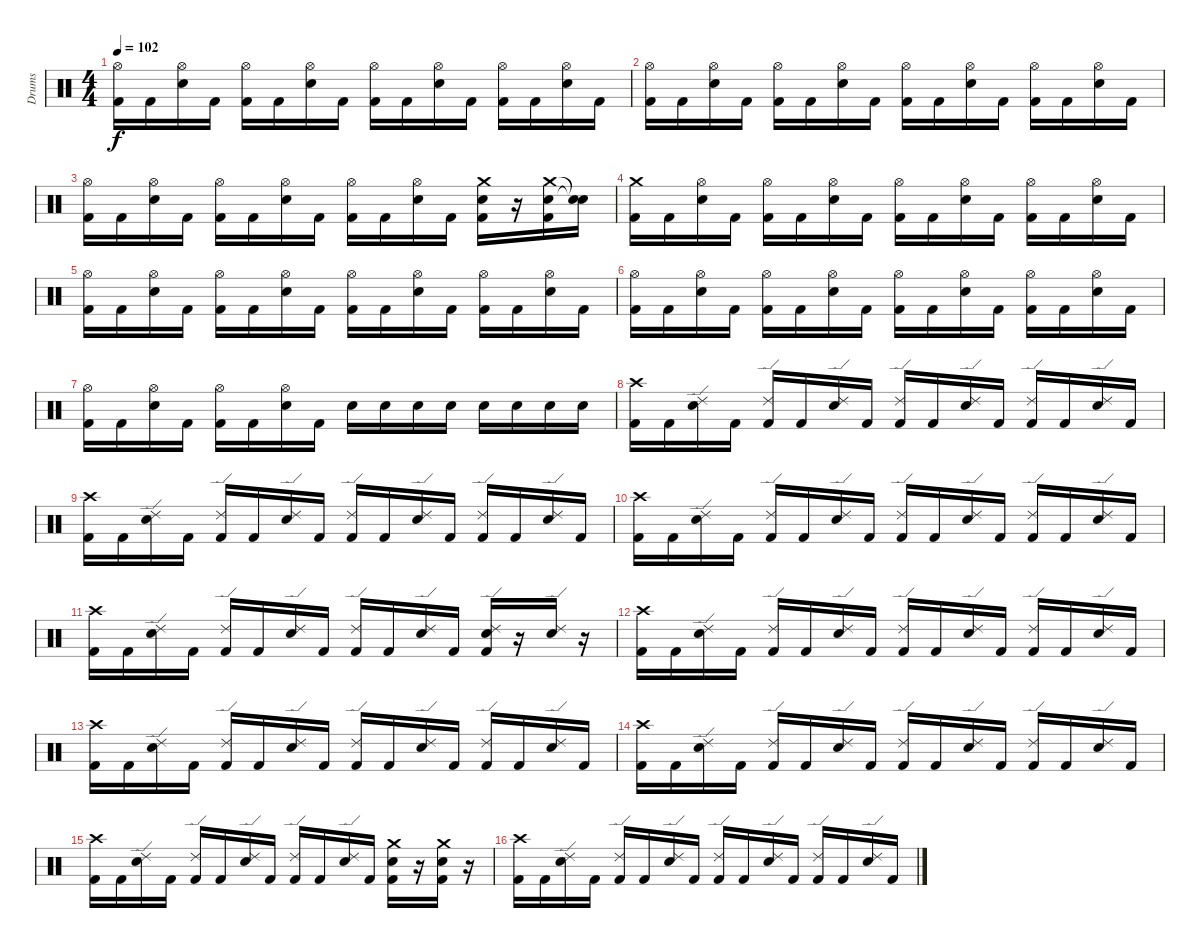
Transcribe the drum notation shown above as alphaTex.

\track ("Drums" "Drums") {instrument percussion}
\staff {score}
\articulation defaults
\ts (4 4)
\tempo 102
\clef neutral
\ks c
("Hi-Hat (open)" "Kick (hit) 2").16{dy f} "Kick (hit) 2".16 ("Hi-Hat (open)" "Snare (hit) 2").16 "Kick (hit) 2".16 ("Hi-Hat (open)" "Kick (hit) 2").16 "Kick (hit) 2".16 ("Hi-Hat (open)" "Snare (hit) 2").16 "Kick (hit) 2".16 ("Hi-Hat (open)" "Kick (hit) 2").16 "Kick (hit) 2".16 ("Hi-Hat (open)" "Snare (hit) 2").16 "Kick (hit) 2".16 ("Hi-Hat (open)" "Kick (hit) 2").16 "Kick (hit) 2".16 ("Hi-Hat (open)" "Snare (hit) 2").16 "Kick (hit) 2".16 |
("Hi-Hat (open)" "Kick (hit) 2").16 "Kick (hit) 2".16 ("Hi-Hat (open)" "Snare (hit) 2").16 "Kick (hit) 2".16 ("Hi-Hat (open)" "Kick (hit) 2").16 "Kick (hit) 2".16 ("Hi-Hat (open)" "Snare (hit) 2").16 "Kick (hit) 2".16 ("Hi-Hat (open)" "Kick (hit) 2").16 "Kick (hit) 2".16 ("Hi-Hat (open)" "Snare (hit) 2").16 "Kick (hit) 2".16 ("Hi-Hat (open)" "Kick (hit) 2").16 "Kick (hit) 2".16 ("Hi-Hat (open)" "Snare (hit) 2").16 "Kick (hit) 2".16 |
("Hi-Hat (open)" "Kick (hit) 2").16 "Kick (hit) 2".16 ("Hi-Hat (open)" "Snare (hit) 2").16 "Kick (hit) 2".16 ("Hi-Hat (open)" "Kick (hit) 2").16 "Kick (hit) 2".16 ("Hi-Hat (open)" "Snare (hit) 2").16 "Kick (hit) 2".16 ("Hi-Hat (open)" "Kick (hit) 2").16 "Kick (hit) 2".16 ("Hi-Hat (open)" "Snare (hit) 2").16 "Kick (hit) 2".16 ("Crash medium (hit)" "Snare (hit) 2" "Kick (hit) 2").16 r.16 ("Crash medium (hit)" "Snare (hit) 2" "Kick (hit) 2").16 ("Snare (hit)"{t} "Snare (hit)"{t}).16 |
("Crash medium (hit)" "Kick (hit) 2").16 "Kick (hit) 2".16 ("Hi-Hat (open)" "Snare (hit) 2").16 "Kick (hit) 2".16 ("Hi-Hat (open)" "Kick (hit) 2").16 "Kick (hit) 2".16 ("Hi-Hat (open)" "Snare (hit) 2").16 "Kick (hit) 2".16 ("Hi-Hat (open)" "Kick (hit) 2").16 "Kick (hit) 2".16 ("Hi-Hat (open)" "Snare (hit) 2").16 "Kick (hit) 2".16 ("Hi-Hat (open)" "Kick (hit) 2").16 "Kick (hit) 2".16 ("Hi-Hat (open)" "Snare (hit) 2").16 "Kick (hit) 2".16 |
("Hi-Hat (open)" "Kick (hit) 2").16 "Kick (hit) 2".16 ("Hi-Hat (open)" "Snare (hit) 2").16 "Kick (hit) 2".16 ("Hi-Hat (open)" "Kick (hit) 2").16 "Kick (hit) 2".16 ("Hi-Hat (open)" "Snare (hit) 2").16 "Kick (hit) 2".16 ("Hi-Hat (open)" "Kick (hit) 2").16 "Kick (hit) 2".16 ("Hi-Hat (open)" "Snare (hit) 2").16 "Kick (hit) 2".16 ("Hi-Hat (open)" "Kick (hit) 2").16 "Kick (hit) 2".16 ("Hi-Hat (open)" "Snare (hit) 2").16 "Kick (hit) 2".16 |
("Hi-Hat (open)" "Kick (hit) 2").16 "Kick (hit) 2".16 ("Hi-Hat (open)" "Snare (hit) 2").16 "Kick (hit) 2".16 ("Hi-Hat (open)" "Kick (hit) 2").16 "Kick (hit) 2".16 ("Hi-Hat (open)" "Snare (hit) 2").16 "Kick (hit) 2".16 ("Hi-Hat (open)" "Kick (hit) 2").16 "Kick (hit) 2".16 ("Hi-Hat (open)" "Snare (hit) 2").16 "Kick (hit) 2".16 ("Hi-Hat (open)" "Kick (hit) 2").16 "Kick (hit) 2".16 ("Hi-Hat (open)" "Snare (hit) 2").16 "Kick (hit) 2".16 |
("Hi-Hat (open)" "Kick (hit) 2").16 "Kick (hit) 2".16 ("Hi-Hat (open)" "Snare (hit) 2").16 "Kick (hit) 2".16 ("Hi-Hat (open)" "Kick (hit) 2").16 "Kick (hit) 2".16 ("Hi-Hat (open)" "Snare (hit) 2").16 "Kick (hit) 2".16 "Snare (hit) 2".16 "Snare (hit) 2".16 "Snare (hit) 2".16 "Snare (hit) 2".16 "Snare (hit) 2".16 "Snare (hit) 2".16 "Snare (hit) 2".16 "Snare (hit) 2".16 |
("Crash high (hit)" "Kick (hit) 2").16 "Kick (hit) 2".16 ("Ride (edge) 2" "Snare (hit) 2").16 "Kick (hit) 2".16 ("Ride (edge) 2" "Kick (hit) 2").16 "Kick (hit) 2".16 ("Ride (edge) 2" "Snare (hit) 2").16 "Kick (hit) 2".16 ("Ride (edge) 2" "Kick (hit) 2").16 "Kick (hit) 2".16 ("Ride (edge) 2" "Snare (hit) 2").16 "Kick (hit) 2".16 ("Ride (edge) 2" "Kick (hit) 2").16 "Kick (hit) 2".16 ("Ride (edge) 2" "Snare (hit) 2").16 "Kick (hit) 2".16 |
("Crash high (hit)" "Kick (hit) 2").16 "Kick (hit) 2".16 ("Ride (edge) 2" "Snare (hit) 2").16 "Kick (hit) 2".16 ("Ride (edge) 2" "Kick (hit) 2").16 "Kick (hit) 2".16 ("Ride (edge) 2" "Snare (hit) 2").16 "Kick (hit) 2".16 ("Ride (edge) 2" "Kick (hit) 2").16 "Kick (hit) 2".16 ("Ride (edge) 2" "Snare (hit) 2").16 "Kick (hit) 2".16 ("Ride (edge) 2" "Kick (hit) 2").16 "Kick (hit) 2".16 ("Ride (edge) 2" "Snare (hit) 2").16 "Kick (hit) 2".16 |
("Crash high (hit)" "Kick (hit) 2").16 "Kick (hit) 2".16 ("Ride (edge) 2" "Snare (hit) 2").16 "Kick (hit) 2".16 ("Ride (edge) 2" "Kick (hit) 2").16 "Kick (hit) 2".16 ("Ride (edge) 2" "Snare (hit) 2").16 "Kick (hit) 2".16 ("Ride (edge) 2" "Kick (hit) 2").16 "Kick (hit) 2".16 ("Ride (edge) 2" "Snare (hit) 2").16 "Kick (hit) 2".16 ("Ride (edge) 2" "Kick (hit) 2").16 "Kick (hit) 2".16 ("Ride (edge) 2" "Snare (hit) 2").16 "Kick (hit) 2".16 |
("Crash high (hit)" "Kick (hit) 2").16 "Kick (hit) 2".16 ("Ride (edge) 2" "Snare (hit) 2").16 "Kick (hit) 2".16 ("Ride (edge) 2" "Kick (hit) 2").16 "Kick (hit) 2".16 ("Ride (edge) 2" "Snare (hit) 2").16 "Kick (hit) 2".16 ("Ride (edge) 2" "Kick (hit) 2").16 "Kick (hit) 2".16 ("Ride (edge) 2" "Snare (hit) 2").16 "Kick (hit) 2".16 ("Ride (edge) 2" "Snare (hit) 2" "Kick (hit) 2").16 r.16 ("Ride (edge) 2" "Snare (hit) 2").16 r.16 |
("Crash high (hit)" "Kick (hit) 2").16 "Kick (hit) 2".16 ("Ride (edge) 2" "Snare (hit) 2").16 "Kick (hit) 2".16 ("Ride (edge) 2" "Kick (hit) 2").16 "Kick (hit) 2".16 ("Ride (edge) 2" "Snare (hit) 2").16 "Kick (hit) 2".16 ("Ride (edge) 2" "Kick (hit) 2").16 "Kick (hit) 2".16 ("Ride (edge) 2" "Snare (hit) 2").16 "Kick (hit) 2".16 ("Ride (edge) 2" "Kick (hit) 2").16 "Kick (hit) 2".16 ("Ride (edge) 2" "Snare (hit) 2").16 "Kick (hit) 2".16 |
("Crash high (hit)" "Kick (hit) 2").16 "Kick (hit) 2".16 ("Ride (edge) 2" "Snare (hit) 2").16 "Kick (hit) 2".16 ("Ride (edge) 2" "Kick (hit) 2").16 "Kick (hit) 2".16 ("Ride (edge) 2" "Snare (hit) 2").16 "Kick (hit) 2".16 ("Ride (edge) 2" "Kick (hit) 2").16 "Kick (hit) 2".16 ("Ride (edge) 2" "Snare (hit) 2").16 "Kick (hit) 2".16 ("Ride (edge) 2" "Kick (hit) 2").16 "Kick (hit) 2".16 ("Ride (edge) 2" "Snare (hit) 2").16 "Kick (hit) 2".16 |
("Crash high (hit)" "Kick (hit) 2").16 "Kick (hit) 2".16 ("Ride (edge) 2" "Snare (hit) 2").16 "Kick (hit) 2".16 ("Ride (edge) 2" "Kick (hit) 2").16 "Kick (hit) 2".16 ("Ride (edge) 2" "Snare (hit) 2").16 "Kick (hit) 2".16 ("Ride (edge) 2" "Kick (hit) 2").16 "Kick (hit) 2".16 ("Ride (edge) 2" "Snare (hit) 2").16 "Kick (hit) 2".16 ("Ride (edge) 2" "Kick (hit) 2").16 "Kick (hit) 2".16 ("Ride (edge) 2" "Snare (hit) 2").16 "Kick (hit) 2".16 |
("Crash high (hit)" "Kick (hit) 2").16 "Kick (hit) 2".16 ("Ride (edge) 2" "Snare (hit) 2").16 "Kick (hit) 2".16 ("Ride (edge) 2" "Kick (hit) 2").16 "Kick (hit) 2".16 ("Ride (edge) 2" "Snare (hit) 2").16 "Kick (hit) 2".16 ("Ride (edge) 2" "Kick (hit) 2").16 "Kick (hit) 2".16 ("Ride (edge) 2" "Snare (hit) 2").16 "Kick (hit) 2".16 ("Crash medium (hit)" "Snare (hit) 2" "Kick (hit) 2").16 r.16 ("Crash medium (hit)" "Snare (hit) 2" "Kick (hit) 2").16 r.16 |
("Crash high (hit)" "Kick (hit) 2").16 "Kick (hit) 2".16 ("Ride (edge) 2" "Snare (hit) 2").16 "Kick (hit) 2".16 ("Ride (edge) 2" "Kick (hit) 2").16 "Kick (hit) 2".16 ("Ride (edge) 2" "Snare (hit) 2").16 "Kick (hit) 2".16 ("Ride (edge) 2" "Kick (hit) 2").16 "Kick (hit) 2".16 ("Ride (edge) 2" "Snare (hit) 2").16 "Kick (hit) 2".16 ("Ride (edge) 2" "Kick (hit) 2").16 "Kick (hit) 2".16 ("Ride (edge) 2" "Snare (hit) 2").16 "Kick (hit) 2".16
